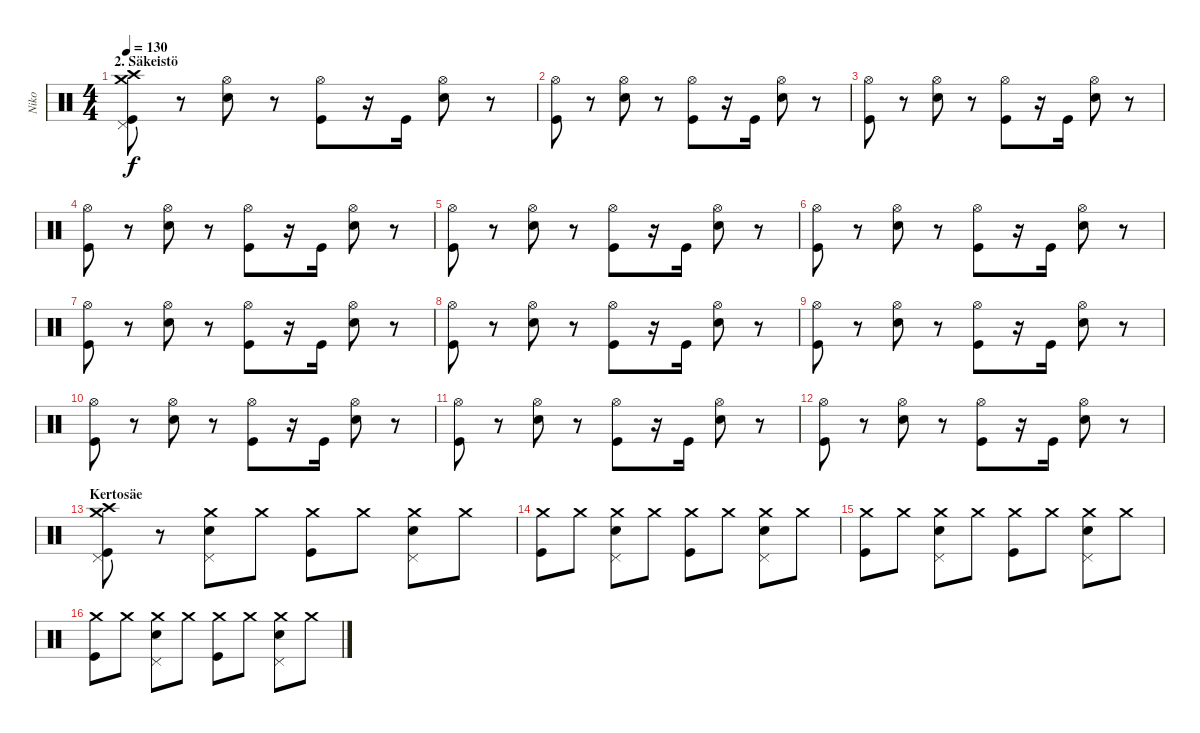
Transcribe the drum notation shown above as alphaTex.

\track ("Niko" "Niko") {instrument percussion}
\staff {score}
\articulation defaults
\ts (4 4)
\section ("" "2. Säkeistö")
\tempo 130
\clef neutral
\ks c
("Kick (hit)" "Crash medium (hit)" "Pedal Hi-Hat (hit)" "Crash high (hit)").8{dy f} r.8 ("Snare (hit) 2" "Hi-Hat (open)").8 r.8 ("Kick (hit)" "Hi-Hat (open)").8 r.16 "Kick (hit)".16 ("Snare (hit) 2" "Hi-Hat (open)").8 r.8 |
("Kick (hit)" "Hi-Hat (open)").8 r.8 ("Snare (hit) 2" "Hi-Hat (open)").8 r.8 ("Kick (hit)" "Hi-Hat (open)").8 r.16 "Kick (hit)".16 ("Snare (hit) 2" "Hi-Hat (open)").8 r.8 |
("Kick (hit)" "Hi-Hat (open)").8 r.8 ("Snare (hit) 2" "Hi-Hat (open)").8 r.8 ("Kick (hit)" "Hi-Hat (open)").8 r.16 "Kick (hit)".16 ("Snare (hit) 2" "Hi-Hat (open)").8 r.8 |
("Kick (hit)" "Hi-Hat (open)").8 r.8 ("Snare (hit) 2" "Hi-Hat (open)").8 r.8 ("Kick (hit)" "Hi-Hat (open)").8 r.16 "Kick (hit)".16 ("Snare (hit) 2" "Hi-Hat (open)").8 r.8 |
("Kick (hit)" "Hi-Hat (open)").8 r.8 ("Snare (hit) 2" "Hi-Hat (open)").8 r.8 ("Kick (hit)" "Hi-Hat (open)").8 r.16 "Kick (hit)".16 ("Snare (hit) 2" "Hi-Hat (open)").8 r.8 |
("Kick (hit)" "Hi-Hat (open)").8 r.8 ("Snare (hit) 2" "Hi-Hat (open)").8 r.8 ("Kick (hit)" "Hi-Hat (open)").8 r.16 "Kick (hit)".16 ("Snare (hit) 2" "Hi-Hat (open)").8 r.8 |
("Kick (hit)" "Hi-Hat (open)").8 r.8 ("Snare (hit) 2" "Hi-Hat (open)").8 r.8 ("Kick (hit)" "Hi-Hat (open)").8 r.16 "Kick (hit)".16 ("Snare (hit) 2" "Hi-Hat (open)").8 r.8 |
("Kick (hit)" "Hi-Hat (open)").8 r.8 ("Snare (hit) 2" "Hi-Hat (open)").8 r.8 ("Kick (hit)" "Hi-Hat (open)").8 r.16 "Kick (hit)".16 ("Snare (hit) 2" "Hi-Hat (open)").8 r.8 |
("Kick (hit)" "Hi-Hat (open)").8 r.8 ("Snare (hit) 2" "Hi-Hat (open)").8 r.8 ("Kick (hit)" "Hi-Hat (open)").8 r.16 "Kick (hit)".16 ("Snare (hit) 2" "Hi-Hat (open)").8 r.8 |
("Kick (hit)" "Hi-Hat (open)").8 r.8 ("Snare (hit) 2" "Hi-Hat (open)").8 r.8 ("Kick (hit)" "Hi-Hat (open)").8 r.16 "Kick (hit)".16 ("Snare (hit) 2" "Hi-Hat (open)").8 r.8 |
("Kick (hit)" "Hi-Hat (open)").8 r.8 ("Snare (hit) 2" "Hi-Hat (open)").8 r.8 ("Kick (hit)" "Hi-Hat (open)").8 r.16 "Kick (hit)".16 ("Snare (hit) 2" "Hi-Hat (open)").8 r.8 |
("Kick (hit)" "Hi-Hat (open)").8 r.8 ("Snare (hit) 2" "Hi-Hat (open)").8 r.8 ("Kick (hit)" "Hi-Hat (open)").8 r.16 "Kick (hit)".16 ("Snare (hit) 2" "Hi-Hat (open)").8 r.8 |
\section ("" "Kertosäe")
("Kick (hit)" "Crash medium (hit)" "Pedal Hi-Hat (hit)" "Crash high (hit)").8 r.8 ("Snare (hit) 2" "Crash medium (hit)" "Pedal Hi-Hat (hit)").8 "Crash medium (hit)".8 ("Kick (hit)" "Crash medium (hit)").8 "Crash medium (hit)".8 ("Snare (hit) 2" "Crash medium (hit)" "Pedal Hi-Hat (hit)").8 "Crash medium (hit)".8 |
("Kick (hit)" "Crash medium (hit)").8 "Crash medium (hit)".8 ("Snare (hit) 2" "Crash medium (hit)" "Pedal Hi-Hat (hit)").8 "Crash medium (hit)".8 ("Kick (hit)" "Crash medium (hit)").8 "Crash medium (hit)".8 ("Snare (hit) 2" "Crash medium (hit)" "Pedal Hi-Hat (hit)").8 "Crash medium (hit)".8 |
("Kick (hit)" "Crash medium (hit)").8 "Crash medium (hit)".8 ("Snare (hit) 2" "Crash medium (hit)" "Pedal Hi-Hat (hit)").8 "Crash medium (hit)".8 ("Kick (hit)" "Crash medium (hit)").8 "Crash medium (hit)".8 ("Snare (hit) 2" "Crash medium (hit)" "Pedal Hi-Hat (hit)").8 "Crash medium (hit)".8 |
("Kick (hit)" "Crash medium (hit)").8 "Crash medium (hit)".8 ("Snare (hit) 2" "Crash medium (hit)" "Pedal Hi-Hat (hit)").8 "Crash medium (hit)".8 ("Kick (hit)" "Crash medium (hit)").8 "Crash medium (hit)".8 ("Snare (hit) 2" "Crash medium (hit)" "Pedal Hi-Hat (hit)").8 "Crash medium (hit)".8
